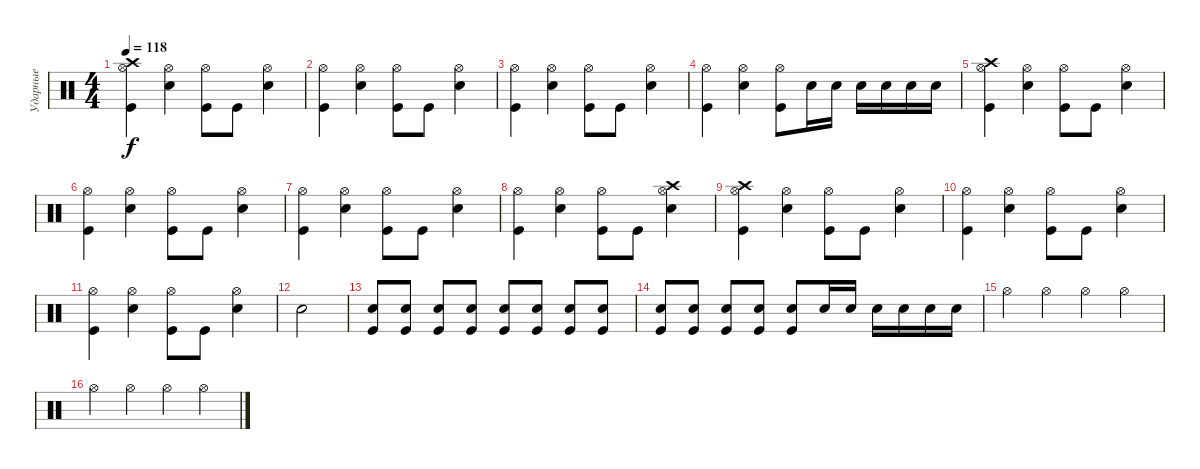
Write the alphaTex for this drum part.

\track ("Ударные" "Ударные") {instrument percussion}
\staff {score}
\articulation defaults
\ts (4 4)
\tempo 118
\clef neutral
\ks c
("Hi-Hat (open)" "Crash high (hit)" "Kick (hit)").4{dy f} ("Hi-Hat (open)" "Snare (hit) 2").4 ("Hi-Hat (open)" "Kick (hit)").8 "Kick (hit)".8 ("Hi-Hat (open)" "Snare (hit) 2").4 |
("Hi-Hat (open)" "Kick (hit)").4 ("Hi-Hat (open)" "Snare (hit) 2").4 ("Hi-Hat (open)" "Kick (hit)").8 "Kick (hit)".8 ("Hi-Hat (open)" "Snare (hit) 2").4 |
("Hi-Hat (open)" "Kick (hit)").4 ("Hi-Hat (open)" "Snare (hit) 2").4 ("Hi-Hat (open)" "Kick (hit)").8 "Kick (hit)".8 ("Hi-Hat (open)" "Snare (hit) 2").4 |
("Hi-Hat (open)" "Kick (hit)").4 ("Hi-Hat (open)" "Snare (hit) 2").4 ("Hi-Hat (open)" "Kick (hit)").8 "Snare (hit) 2".16 "Snare (hit) 2".16 "Snare (hit) 2".16 "Snare (hit) 2".16 "Snare (hit) 2".16 "Snare (hit) 2".16 |
("Hi-Hat (open)" "Crash high (hit)" "Kick (hit)").4 ("Hi-Hat (open)" "Snare (hit) 2").4 ("Hi-Hat (open)" "Kick (hit)").8 "Kick (hit)".8 ("Hi-Hat (open)" "Snare (hit) 2").4 |
("Hi-Hat (open)" "Kick (hit)").4 ("Hi-Hat (open)" "Snare (hit) 2").4 ("Hi-Hat (open)" "Kick (hit)").8 "Kick (hit)".8 ("Hi-Hat (open)" "Snare (hit) 2").4 |
("Hi-Hat (open)" "Kick (hit)").4 ("Hi-Hat (open)" "Snare (hit) 2").4 ("Hi-Hat (open)" "Kick (hit)").8 "Kick (hit)".8 ("Hi-Hat (open)" "Snare (hit) 2").4 |
("Hi-Hat (open)" "Kick (hit)").4 ("Hi-Hat (open)" "Snare (hit) 2").4 ("Hi-Hat (open)" "Kick (hit)").8 "Kick (hit)".8 ("Hi-Hat (open)" "Crash high (hit)" "Snare (hit) 2").4 |
("Hi-Hat (open)" "Crash high (hit)" "Kick (hit)").4 ("Hi-Hat (open)" "Snare (hit) 2").4 ("Hi-Hat (open)" "Kick (hit)").8 "Kick (hit)".8 ("Hi-Hat (open)" "Snare (hit) 2").4 |
("Hi-Hat (open)" "Kick (hit)").4 ("Hi-Hat (open)" "Snare (hit) 2").4 ("Hi-Hat (open)" "Kick (hit)").8 "Kick (hit)".8 ("Hi-Hat (open)" "Snare (hit) 2").4 |
("Hi-Hat (open)" "Kick (hit)").4 ("Hi-Hat (open)" "Snare (hit) 2").4 ("Hi-Hat (open)" "Kick (hit)").8 "Kick (hit)".8 ("Hi-Hat (open)" "Snare (hit) 2").4 |
"Snare (hit) 2".2 |
("Snare (hit) 2" "Kick (hit)").8 ("Snare (hit) 2" "Kick (hit)").8 ("Snare (hit) 2" "Kick (hit)").8 ("Snare (hit) 2" "Kick (hit)").8 ("Snare (hit) 2" "Kick (hit)").8 ("Snare (hit) 2" "Kick (hit)").8 ("Snare (hit) 2" "Kick (hit)").8 ("Snare (hit) 2" "Kick (hit)").8 |
("Snare (hit) 2" "Kick (hit)").8 ("Snare (hit) 2" "Kick (hit)").8 ("Snare (hit) 2" "Kick (hit)").8 ("Snare (hit) 2" "Kick (hit)").8 ("Snare (hit) 2" "Kick (hit)").8 "Snare (hit) 2".16 "Snare (hit) 2".16 "Snare (hit) 2".16 "Snare (hit) 2".16 "Snare (hit) 2".16 "Snare (hit) 2".16 |
"Hi-Hat (open)".4 "Hi-Hat (open)".4 "Hi-Hat (open)".4 "Hi-Hat (open)".4 |
"Hi-Hat (open)".4 "Hi-Hat (open)".4 "Hi-Hat (open)".4 "Hi-Hat (open)".4
